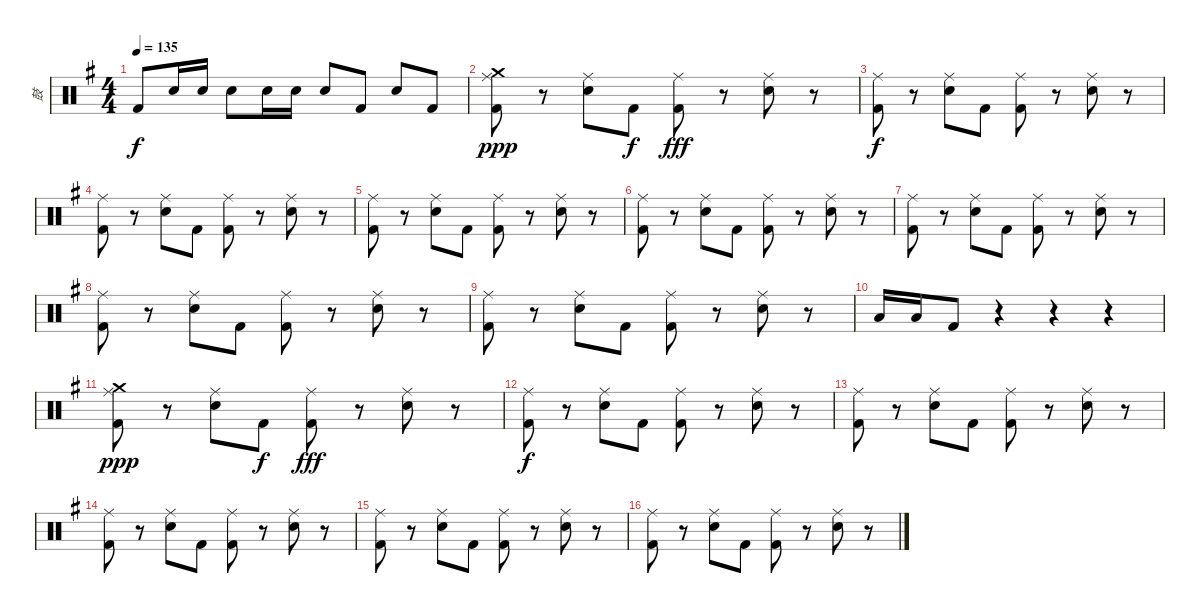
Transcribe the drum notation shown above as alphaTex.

\track ("鼓" "鼓") {instrument percussion}
\staff {score}
\articulation defaults
\ts (4 4)
\tempo 135
\clef neutral
\ks g "Kick (hit) 2".8{dy f} "Snare (hit) 2".16 "Snare (hit) 2".16 "Snare (hit) 2".8 "Snare (hit) 2".16 "Snare (hit) 2".16 "Snare (hit) 2".8 "Kick (hit) 2".8 "Snare (hit) 2".8 "Kick (hit) 2".8
|
("Crash medium (hit)" "Kick (hit) 2" "Ride (middle)").8{dy ppp} r.8 ("Snare (hit) 2" "Ride (middle)").8 "Kick (hit) 2".8{dy f} ("Kick (hit) 2" "Ride (middle)").8{dy fff} r.8 ("Snare (hit) 2" "Ride (middle)").8 r.8 |
("Kick (hit) 2" "Ride (middle)").8{dy f} r.8 ("Snare (hit) 2" "Ride (middle)").8 "Kick (hit) 2".8 ("Kick (hit) 2" "Ride (middle)").8 r.8 ("Snare (hit) 2" "Ride (middle)").8 r.8 |
("Kick (hit) 2" "Ride (middle)").8 r.8 ("Snare (hit) 2" "Ride (middle)").8 "Kick (hit) 2".8 ("Kick (hit) 2" "Ride (middle)").8 r.8 ("Snare (hit) 2" "Ride (middle)").8 r.8 |
("Kick (hit) 2" "Ride (middle)").8 r.8 ("Snare (hit) 2" "Ride (middle)").8 "Kick (hit) 2".8 ("Kick (hit) 2" "Ride (middle)").8 r.8 ("Snare (hit) 2" "Ride (middle)").8 r.8 |
("Kick (hit) 2" "Ride (middle)").8 r.8 ("Snare (hit) 2" "Ride (middle)").8 "Kick (hit) 2".8 ("Kick (hit) 2" "Ride (middle)").8 r.8 ("Snare (hit) 2" "Ride (middle)").8 r.8 |
("Kick (hit) 2" "Ride (middle)").8 r.8 ("Snare (hit) 2" "Ride (middle)").8 "Kick (hit) 2".8 ("Kick (hit) 2" "Ride (middle)").8 r.8 ("Snare (hit) 2" "Ride (middle)").8 r.8 |
("Kick (hit) 2" "Ride (middle)").8 r.8 ("Snare (hit) 2" "Ride (middle)").8 "Kick (hit) 2".8 ("Kick (hit) 2" "Ride (middle)").8 r.8 ("Snare (hit) 2" "Ride (middle)").8 r.8 |
("Kick (hit) 2" "Ride (middle)").8 r.8 ("Snare (hit) 2" "Ride (middle)").8 "Kick (hit) 2".8 ("Kick (hit) 2" "Ride (middle)").8 r.8 ("Snare (hit) 2" "Ride (middle)").8 r.8 |
"Low Tom (hit)".16 "Low Tom (hit)".16 "Kick (hit) 2".8 r.4 r.4 r.4 |
("Crash medium (hit)" "Kick (hit) 2" "Ride (middle)").8{dy ppp} r.8 ("Snare (hit) 2" "Ride (middle)").8 "Kick (hit) 2".8{dy f} ("Kick (hit) 2" "Ride (middle)").8{dy fff} r.8 ("Snare (hit) 2" "Ride (middle)").8 r.8 |
("Kick (hit) 2" "Ride (middle)").8{dy f} r.8 ("Snare (hit) 2" "Ride (middle)").8 "Kick (hit) 2".8 ("Kick (hit) 2" "Ride (middle)").8 r.8 ("Snare (hit) 2" "Ride (middle)").8 r.8 |
("Kick (hit) 2" "Ride (middle)").8 r.8 ("Snare (hit) 2" "Ride (middle)").8 "Kick (hit) 2".8 ("Kick (hit) 2" "Ride (middle)").8 r.8 ("Snare (hit) 2" "Ride (middle)").8 r.8 |
("Kick (hit) 2" "Ride (middle)").8 r.8 ("Snare (hit) 2" "Ride (middle)").8 "Kick (hit) 2".8 ("Kick (hit) 2" "Ride (middle)").8 r.8 ("Snare (hit) 2" "Ride (middle)").8 r.8 |
("Kick (hit) 2" "Ride (middle)").8 r.8 ("Snare (hit) 2" "Ride (middle)").8 "Kick (hit) 2".8 ("Kick (hit) 2" "Ride (middle)").8 r.8 ("Snare (hit) 2" "Ride (middle)").8 r.8 |
("Kick (hit) 2" "Ride (middle)").8 r.8 ("Snare (hit) 2" "Ride (middle)").8 "Kick (hit) 2".8 ("Kick (hit) 2" "Ride (middle)").8 r.8 ("Snare (hit) 2" "Ride (middle)").8 r.8
